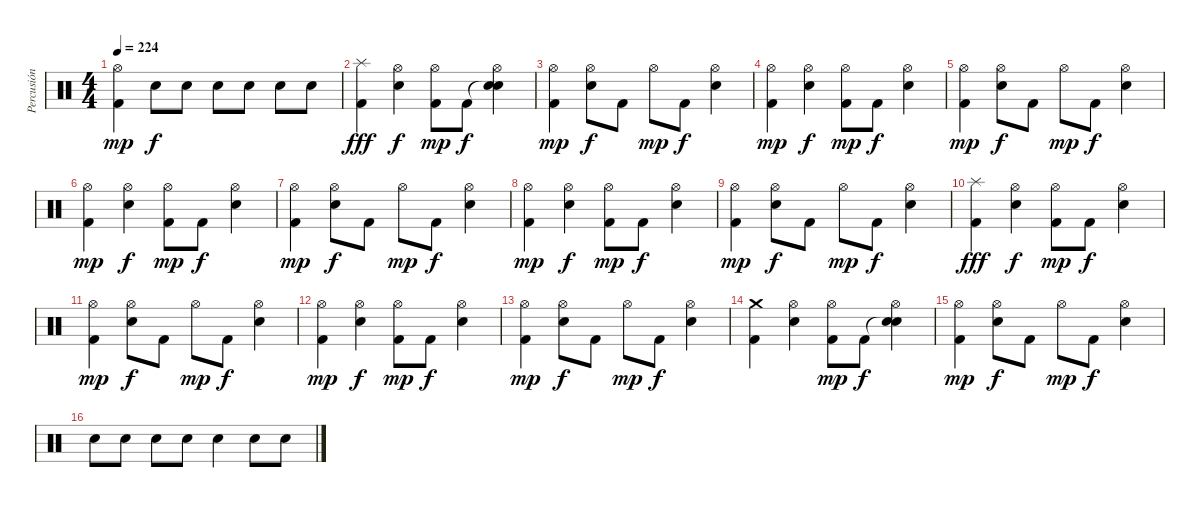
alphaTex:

\track ("Percusión" "Percusión") {instrument percussion}
\staff {score}
\articulation defaults
\ts (4 4)
\tempo 224
\clef neutral
\ks c
("Hi-Hat (open)" "Kick (hit) 2").4{dy mp} "Electric Snare (hit)".8{dy f} "Electric Snare (hit)".8 "Electric Snare (hit)".8 "Electric Snare (hit)".8 "Electric Snare (hit)".8 "Electric Snare (hit)".8 |
("Splash (hit)" "Kick (hit) 2").4{dy fff} ("Hi-Hat (open)" "Electric Snare (hit)").4{dy f} ("Hi-Hat (open)" "Kick (hit) 2").8{dy mp} "Kick (hit) 2".8{dy f} ("Snare (hit)"{t} "Hi-Hat (open)" "Electric Snare (hit)").4 |
("Hi-Hat (open)" "Kick (hit) 2").4{dy mp} ("Hi-Hat (open)" "Electric Snare (hit)").8{dy f} "Kick (hit) 2".8 "Hi-Hat (open)".8{dy mp} "Kick (hit) 2".8{dy f} ("Hi-Hat (open)" "Electric Snare (hit)").4 |
("Hi-Hat (open)" "Kick (hit) 2").4{dy mp} ("Hi-Hat (open)" "Electric Snare (hit)").4{dy f} ("Hi-Hat (open)" "Kick (hit) 2").8{dy mp} "Kick (hit) 2".8{dy f} ("Hi-Hat (open)" "Electric Snare (hit)").4 |
("Hi-Hat (open)" "Kick (hit) 2").4{dy mp} ("Hi-Hat (open)" "Electric Snare (hit)").8{dy f} "Kick (hit) 2".8 "Hi-Hat (open)".8{dy mp} "Kick (hit) 2".8{dy f} ("Hi-Hat (open)" "Electric Snare (hit)").4 |
("Hi-Hat (open)" "Kick (hit) 2").4{dy mp} ("Hi-Hat (open)" "Electric Snare (hit)").4{dy f} ("Hi-Hat (open)" "Kick (hit) 2").8{dy mp} "Kick (hit) 2".8{dy f} ("Hi-Hat (open)" "Electric Snare (hit)").4 |
("Hi-Hat (open)" "Kick (hit) 2").4{dy mp} ("Hi-Hat (open)" "Electric Snare (hit)").8{dy f} "Kick (hit) 2".8 "Hi-Hat (open)".8{dy mp} "Kick (hit) 2".8{dy f} ("Hi-Hat (open)" "Electric Snare (hit)").4 |
("Hi-Hat (open)" "Kick (hit) 2").4{dy mp} ("Hi-Hat (open)" "Electric Snare (hit)").4{dy f} ("Hi-Hat (open)" "Kick (hit) 2").8{dy mp} "Kick (hit) 2".8{dy f} ("Hi-Hat (open)" "Electric Snare (hit)").4 |
("Hi-Hat (open)" "Kick (hit) 2").4{dy mp} ("Hi-Hat (open)" "Electric Snare (hit)").8{dy f} "Kick (hit) 2".8 "Hi-Hat (open)".8{dy mp} "Kick (hit) 2".8{dy f} ("Hi-Hat (open)" "Electric Snare (hit)").4 |
("Splash (hit)" "Kick (hit) 2").4{dy fff} ("Hi-Hat (open)" "Electric Snare (hit)").4{dy f} ("Hi-Hat (open)" "Kick (hit) 2").8{dy mp} "Kick (hit) 2".8{dy f} ("Hi-Hat (open)" "Electric Snare (hit)").4 |
("Hi-Hat (open)" "Kick (hit) 2").4{dy mp} ("Hi-Hat (open)" "Electric Snare (hit)").8{dy f} "Kick (hit) 2".8 "Hi-Hat (open)".8{dy mp} "Kick (hit) 2".8{dy f} ("Hi-Hat (open)" "Electric Snare (hit)").4 |
("Hi-Hat (open)" "Kick (hit) 2").4{dy mp} ("Hi-Hat (open)" "Electric Snare (hit)").4{dy f} ("Hi-Hat (open)" "Kick (hit) 2").8{dy mp} "Kick (hit) 2".8{dy f} ("Hi-Hat (open)" "Electric Snare (hit)").4 |
("Hi-Hat (open)" "Kick (hit) 2").4{dy mp} ("Hi-Hat (open)" "Electric Snare (hit)").8{dy f} "Kick (hit) 2".8 "Hi-Hat (open)".8{dy mp} "Kick (hit) 2".8{dy f} ("Hi-Hat (open)" "Electric Snare (hit)").4 |
("Crash medium (hit)" "Kick (hit) 2").4 ("Hi-Hat (open)" "Electric Snare (hit)").4 ("Hi-Hat (open)" "Kick (hit) 2").8{dy mp} "Kick (hit) 2".8{dy f} ("Snare (hit)"{t} "Hi-Hat (open)" "Electric Snare (hit)").4 |
("Hi-Hat (open)" "Kick (hit) 2").4{dy mp} ("Hi-Hat (open)" "Electric Snare (hit)").8{dy f} "Kick (hit) 2".8 "Hi-Hat (open)".8{dy mp} "Kick (hit) 2".8{dy f} ("Hi-Hat (open)" "Electric Snare (hit)").4 |
"Electric Snare (hit)".8 "Electric Snare (hit)".8 "Electric Snare (hit)".8 "Electric Snare (hit)".8 "Electric Snare (hit)".4 "Electric Snare (hit)".8 "Electric Snare (hit)".8
